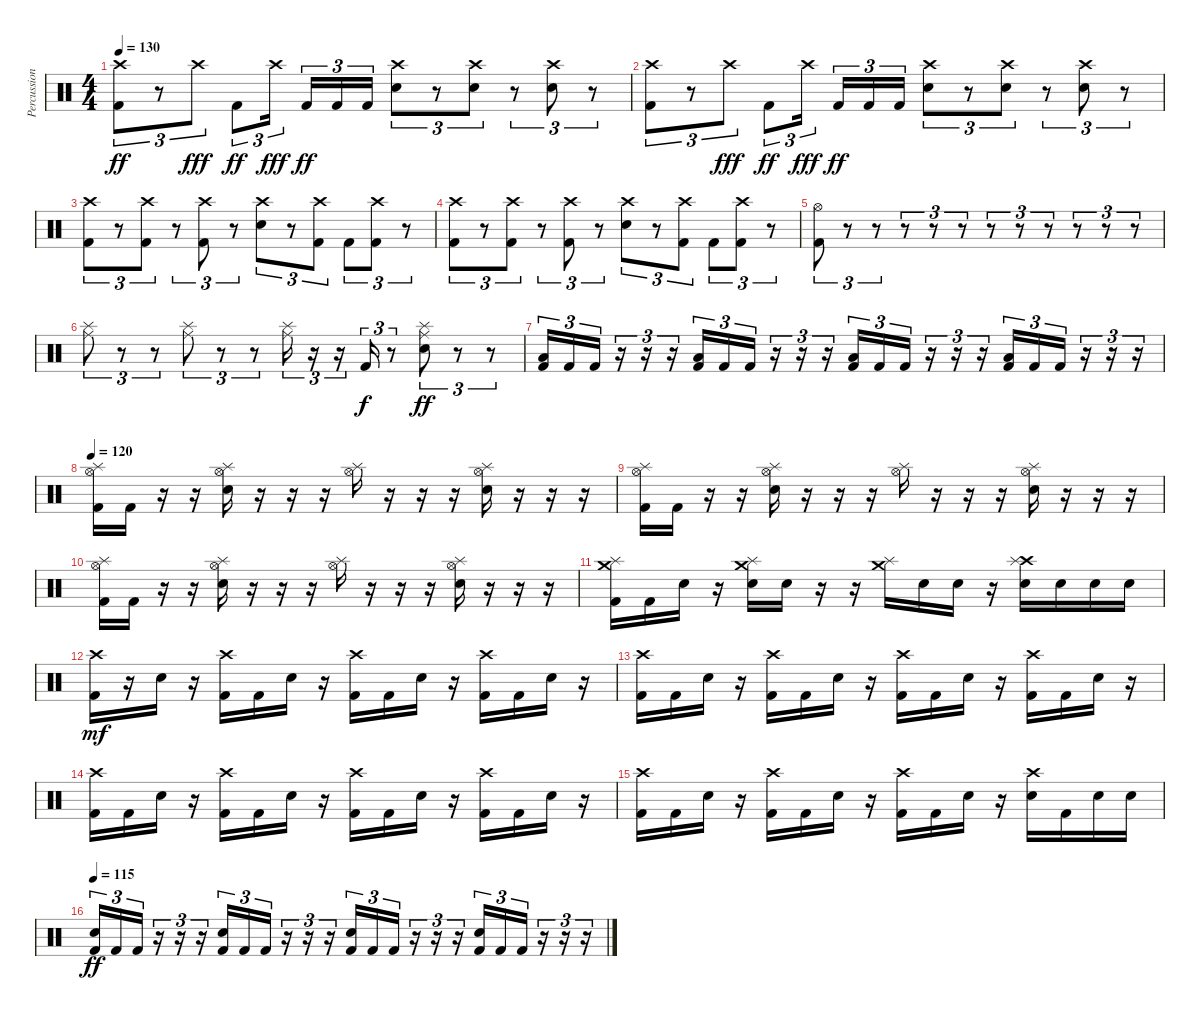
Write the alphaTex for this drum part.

\track ("Percussion" "Percussion") {instrument percussion bank 95}
\staff {score}
\articulation defaults
\ts (4 4)
\tempo 130
\clef neutral
\ks c
("Crash high (hit)" "Kick (hit) 2").8{tu (3 2) dy ff} r.8{tu (3 2)} "Crash high (hit)".8{tu (3 2) dy fff} "Kick (hit) 2".8{tu (3 2) dy ff} "Crash high (hit)".16{tu (3 2) dy fff beam splitsecondary} "Kick (hit) 2".16{tu (3 2) dy ff} "Kick (hit) 2".16{tu (3 2)} "Kick (hit) 2".16{tu (3 2)} ("Crash high (hit)" "Snare (hit) 2").8{tu (3 2)} r.8{tu (3 2)} ("Crash high (hit)" "Snare (hit) 2").8{tu (3 2)} r.8{tu (3 2)} ("Crash high (hit)" "Snare (hit) 2").8{tu (3 2)} r.8{tu (3 2)} |
("Crash high (hit)" "Kick (hit) 2").8{tu (3 2)} r.8{tu (3 2)} "Crash high (hit)".8{tu (3 2) dy fff} "Kick (hit) 2".8{tu (3 2) dy ff} "Crash high (hit)".16{tu (3 2) dy fff beam splitsecondary} "Kick (hit) 2".16{tu (3 2) dy ff} "Kick (hit) 2".16{tu (3 2)} "Kick (hit) 2".16{tu (3 2)} ("Crash high (hit)" "Snare (hit) 2").8{tu (3 2)} r.8{tu (3 2)} ("Crash high (hit)" "Snare (hit) 2").8{tu (3 2)} r.8{tu (3 2)} ("Crash high (hit)" "Snare (hit) 2").8{tu (3 2)} r.8{tu (3 2)} |
("Crash high (hit)" "Kick (hit) 2").8{tu (3 2)} r.8{tu (3 2)} ("Crash high (hit)" "Kick (hit) 2").8{tu (3 2)} r.8{tu (3 2)} ("Crash high (hit)" "Kick (hit) 2").8{tu (3 2)} r.8{tu (3 2)} ("Crash high (hit)" "Snare (hit) 2").8{tu (3 2)} r.8{tu (3 2)} ("Crash high (hit)" "Kick (hit) 2").8{tu (3 2)} "Kick (hit) 2".8{tu (3 2)} ("Crash high (hit)" "Kick (hit) 2").8{tu (3 2)} r.8{tu (3 2)} |
("Crash high (hit)" "Kick (hit) 2").8{tu (3 2)} r.8{tu (3 2)} ("Crash high (hit)" "Kick (hit) 2").8{tu (3 2)} r.8{tu (3 2)} ("Crash high (hit)" "Kick (hit) 2").8{tu (3 2)} r.8{tu (3 2)} ("Crash high (hit)" "Snare (hit) 2").8{tu (3 2)} r.8{tu (3 2)} ("Crash high (hit)" "Kick (hit) 2").8{tu (3 2)} "Kick (hit) 2".8{tu (3 2)} ("Crash high (hit)" "Kick (hit) 2").8{tu (3 2)} r.8{tu (3 2)} |
("Hi-Hat (open)" "Kick (hit) 2").8{tu (3 2)} r.8{tu (3 2)} r.8{tu (3 2)} r.8{tu (3 2)} r.8{tu (3 2)} r.8{tu (3 2)} r.8{tu (3 2)} r.8{tu (3 2)} r.8{tu (3 2)} r.8{tu (3 2)} r.8{tu (3 2)} r.8{tu (3 2)} |
("Splash (hit)" "Ride (middle)").8{tu (3 2)} r.8{tu (3 2)} r.8{tu (3 2)} ("Splash (hit)" "Ride (middle)").8{tu (3 2)} r.8{tu (3 2)} r.8{tu (3 2)} ("Splash (hit)" "Ride (middle)").16{tu (3 2)} r.16{tu (3 2)} r.16{tu (3 2)} "Kick (hit) 2".16{tu (3 2) dy f} r.8{tu (3 2)} ("Splash (hit)" "Ride (middle)" "Electric Snare (hit)").8{tu (3 2) dy ff} r.8{tu (3 2)} r.8{tu (3 2)} |
("Low Floor Tom (hit)" "Kick (hit) 2").16{tu (3 2)} "Kick (hit) 2".16{tu (3 2)} "Kick (hit) 2".16{tu (3 2)} r.16{tu (3 2)} r.16{tu (3 2)} r.16{tu (3 2)} ("Low Floor Tom (hit)" "Kick (hit) 2").16{tu (3 2)} "Kick (hit) 2".16{tu (3 2)} "Kick (hit) 2".16{tu (3 2)} r.16{tu (3 2)} r.16{tu (3 2)} r.16{tu (3 2)} ("Low Floor Tom (hit)" "Kick (hit) 2").16{tu (3 2)} "Kick (hit) 2".16{tu (3 2)} "Kick (hit) 2".16{tu (3 2)} r.16{tu (3 2)} r.16{tu (3 2)} r.16{tu (3 2)} ("Low Floor Tom (hit)" "Kick (hit) 2").16{tu (3 2)} "Kick (hit) 2".16{tu (3 2)} "Kick (hit) 2".16{tu (3 2)} r.16{tu (3 2)} r.16{tu (3 2)} r.16{tu (3 2)} |
\tempo 120
("Hi-Hat (open)" "Splash (hit)" "Kick (hit) 2").16 "Kick (hit) 2".16 r.16 r.16 ("Hi-Hat (open)" "Splash (hit)" "Snare (hit) 2").16 r.16 r.16 r.16 ("Hi-Hat (open)" "Splash (hit)").16 r.16 r.16 r.16 ("Hi-Hat (open)" "Splash (hit)" "Snare (hit) 2").16 r.16 r.16 r.16 |
("Hi-Hat (open)" "Splash (hit)" "Kick (hit) 2").16 "Kick (hit) 2".16 r.16 r.16 ("Hi-Hat (open)" "Splash (hit)" "Snare (hit) 2").16 r.16 r.16 r.16 ("Hi-Hat (open)" "Splash (hit)").16 r.16 r.16 r.16 ("Hi-Hat (open)" "Splash (hit)" "Snare (hit) 2").16 r.16 r.16 r.16 |
("Hi-Hat (open)" "Splash (hit)" "Kick (hit) 2").16 "Kick (hit) 2".16 r.16 r.16 ("Hi-Hat (open)" "Splash (hit)" "Snare (hit) 2").16 r.16 r.16 r.16 ("Hi-Hat (open)" "Splash (hit)").16 r.16 r.16 r.16 ("Hi-Hat (open)" "Splash (hit)" "Snare (hit) 2").16 r.16 r.16 r.16 |
("Crash medium (hit)" "Splash (hit)" "Kick (hit) 2").16 "Kick (hit) 2".16 "Snare (hit) 2".16 r.16 ("Crash medium (hit)" "Splash (hit)" "Snare (hit) 2").16 "Snare (hit) 2".16 r.16 r.16 ("Crash medium (hit)" "Splash (hit)").16 "Snare (hit) 2".16 "Snare (hit) 2".16 r.16 ("Crash high (hit)" "Splash (hit)" "Snare (hit) 2").16 "Snare (hit) 2".16 "Snare (hit) 2".16 "Snare (hit) 2".16 |
("Crash high (hit)" "Kick (hit) 2").16{dy mf} r.16 "Snare (hit) 2".16 r.16 ("Crash high (hit)" "Kick (hit) 2").16 "Kick (hit) 2".16 "Snare (hit) 2".16 r.16 ("Crash high (hit)" "Kick (hit) 2").16 "Kick (hit) 2".16 "Snare (hit) 2".16 r.16 ("Crash high (hit)" "Kick (hit) 2").16 "Kick (hit) 2".16 "Snare (hit) 2".16 r.16 |
("Crash high (hit)" "Kick (hit) 2").16 "Kick (hit) 2".16 "Snare (hit) 2".16 r.16 ("Crash high (hit)" "Kick (hit) 2").16 "Kick (hit) 2".16 "Snare (hit) 2".16 r.16 ("Crash high (hit)" "Kick (hit) 2").16 "Kick (hit) 2".16 "Snare (hit) 2".16 r.16 ("Crash high (hit)" "Kick (hit) 2").16 "Kick (hit) 2".16 "Snare (hit) 2".16 r.16 |
("Crash high (hit)" "Kick (hit) 2").16 "Kick (hit) 2".16 "Snare (hit) 2".16 r.16 ("Crash high (hit)" "Kick (hit) 2").16 "Kick (hit) 2".16 "Snare (hit) 2".16 r.16 ("Crash high (hit)" "Kick (hit) 2").16 "Kick (hit) 2".16 "Snare (hit) 2".16 r.16 ("Crash high (hit)" "Kick (hit) 2").16 "Kick (hit) 2".16 "Snare (hit) 2".16 r.16 |
("Crash high (hit)" "Kick (hit) 2").16 "Kick (hit) 2".16 "Snare (hit) 2".16 r.16 ("Crash high (hit)" "Kick (hit) 2").16 "Kick (hit) 2".16 "Snare (hit) 2".16 r.16 ("Crash high (hit)" "Kick (hit) 2").16 "Kick (hit) 2".16 "Snare (hit) 2".16 r.16 ("Crash high (hit)" "Snare (hit) 2").16 "Kick (hit) 2".16 "Snare (hit) 2".16 "Snare (hit) 2".16 |
\tempo 115
("Snare (hit) 2" "Kick (hit) 2").16{tu (3 2) dy ff} "Kick (hit) 2".16{tu (3 2)} "Kick (hit) 2".16{tu (3 2)} r.16{tu (3 2)} r.16{tu (3 2)} r.16{tu (3 2)} ("Snare (hit) 2" "Kick (hit) 2").16{tu (3 2)} "Kick (hit) 2".16{tu (3 2)} "Kick (hit) 2".16{tu (3 2)} r.16{tu (3 2)} r.16{tu (3 2)} r.16{tu (3 2)} ("Snare (hit) 2" "Kick (hit) 2").16{tu (3 2)} "Kick (hit) 2".16{tu (3 2)} "Kick (hit) 2".16{tu (3 2)} r.16{tu (3 2)} r.16{tu (3 2)} r.16{tu (3 2)} ("Snare (hit) 2" "Kick (hit) 2").16{tu (3 2)} "Kick (hit) 2".16{tu (3 2)} "Kick (hit) 2".16{tu (3 2)} r.16{tu (3 2)} r.16{tu (3 2)} r.16{tu (3 2)}
